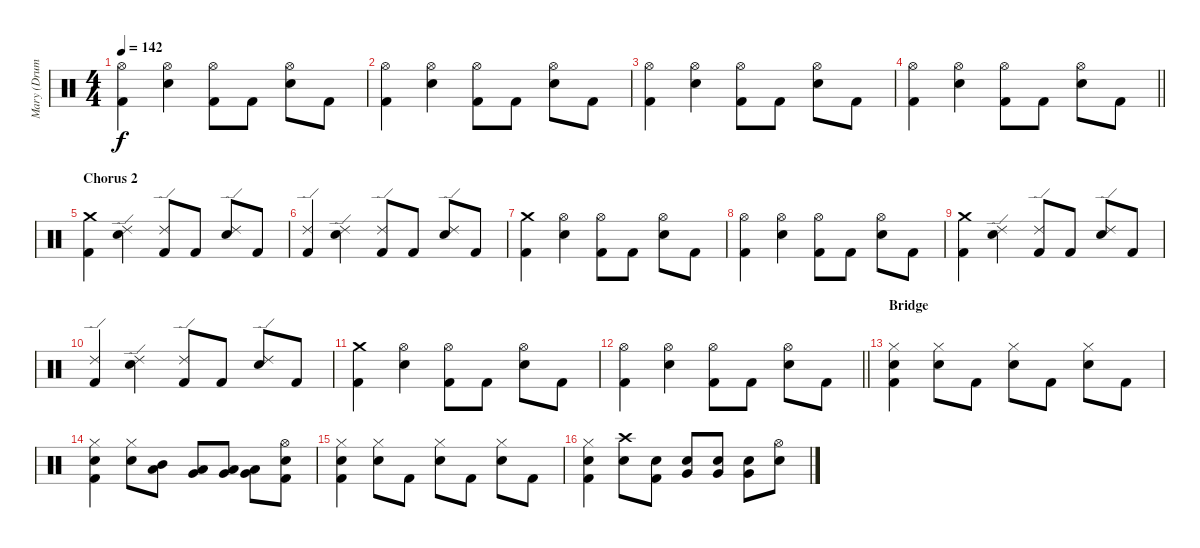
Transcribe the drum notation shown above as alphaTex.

\track ("Mary (Drums)" "Mary (Drum") {instrument percussion}
\staff {score}
\articulation defaults
\ts (4 4)
\tempo 142
\clef neutral
\ks c
("Hi-Hat (open)" "Kick (hit) 2").4{dy f} ("Hi-Hat (open)" "Snare (hit) 2").4 ("Hi-Hat (open)" "Kick (hit) 2").8 "Kick (hit) 2".8 ("Hi-Hat (open)" "Snare (hit) 2").8 "Kick (hit) 2".8 |
("Hi-Hat (open)" "Kick (hit) 2").4 ("Hi-Hat (open)" "Snare (hit) 2").4 ("Hi-Hat (open)" "Kick (hit) 2").8 "Kick (hit) 2".8 ("Hi-Hat (open)" "Snare (hit) 2").8 "Kick (hit) 2".8 |
("Hi-Hat (open)" "Kick (hit) 2").4 ("Hi-Hat (open)" "Snare (hit) 2").4 ("Hi-Hat (open)" "Kick (hit) 2").8 "Kick (hit) 2".8 ("Hi-Hat (open)" "Snare (hit) 2").8 "Kick (hit) 2".8 |
\barLineRight lightlight
("Hi-Hat (open)" "Kick (hit) 2").4 ("Hi-Hat (open)" "Snare (hit) 2").4 ("Hi-Hat (open)" "Kick (hit) 2").8 "Kick (hit) 2".8 ("Hi-Hat (open)" "Snare (hit) 2").8 "Kick (hit) 2".8 |
\section ("" "Chorus 2")
("Crash medium (hit)" "Kick (hit) 2").4 ("Ride (edge) 2" "Snare (hit) 2").4 ("Ride (edge) 2" "Kick (hit) 2").8 "Kick (hit) 2".8 ("Ride (edge) 2" "Snare (hit) 2").8 "Kick (hit) 2".8 |
("Ride (edge) 2" "Kick (hit) 2").4 ("Ride (edge) 2" "Snare (hit) 2").4 ("Ride (edge) 2" "Kick (hit) 2").8 "Kick (hit) 2".8 ("Ride (edge) 2" "Snare (hit) 2").8 "Kick (hit) 2".8 |
("Crash medium (hit)" "Kick (hit) 2").4 ("Hi-Hat (open)" "Snare (hit) 2").4 ("Hi-Hat (open)" "Kick (hit) 2").8 "Kick (hit) 2".8 ("Hi-Hat (open)" "Snare (hit) 2").8 "Kick (hit) 2".8 |
("Hi-Hat (open)" "Kick (hit) 2").4 ("Hi-Hat (open)" "Snare (hit) 2").4 ("Hi-Hat (open)" "Kick (hit) 2").8 "Kick (hit) 2".8 ("Hi-Hat (open)" "Snare (hit) 2").8 "Kick (hit) 2".8 |
("Crash medium (hit)" "Kick (hit) 2").4 ("Ride (edge) 2" "Snare (hit) 2").4 ("Ride (edge) 2" "Kick (hit) 2").8 "Kick (hit) 2".8 ("Ride (edge) 2" "Snare (hit) 2").8 "Kick (hit) 2".8 |
("Ride (edge) 2" "Kick (hit) 2").4 ("Ride (edge) 2" "Snare (hit) 2").4 ("Ride (edge) 2" "Kick (hit) 2").8 "Kick (hit) 2".8 ("Ride (edge) 2" "Snare (hit) 2").8 "Kick (hit) 2".8 |
("Crash medium (hit)" "Kick (hit) 2").4 ("Hi-Hat (open)" "Snare (hit) 2").4 ("Hi-Hat (open)" "Kick (hit) 2").8 "Kick (hit) 2".8 ("Hi-Hat (open)" "Snare (hit) 2").8 "Kick (hit) 2".8 |
\barLineRight lightlight
("Hi-Hat (open)" "Kick (hit) 2").4 ("Hi-Hat (open)" "Snare (hit) 2").4 ("Hi-Hat (open)" "Kick (hit) 2").8 "Kick (hit) 2".8 ("Hi-Hat (open)" "Snare (hit) 2").8 "Kick (hit) 2".8 |
\section ("" "Bridge")
("Hi-Hat (closed)" "Snare (hit) 2" "Kick (hit) 2").4 ("Hi-Hat (closed)" "Snare (hit) 2").8 "Kick (hit) 2".8 ("Hi-Hat (closed)" "Snare (hit) 2").8 "Kick (hit) 2".8 ("Hi-Hat (closed)" "Snare (hit) 2").8 "Kick (hit) 2".8 |
("Hi-Hat (closed)" "Snare (hit) 2" "Kick (hit) 2").4 ("Hi-Hat (closed)" "Snare (hit) 2").8 ("Mid Tom (hit)" "Low Tom (hit)").8 ("Very Low Tom (hit)" "Low Tom (hit)").8 ("Very Low Tom (hit)" "Low Floor Tom (hit)").8 ("Very Low Tom (hit)" "Low Floor Tom (hit)").8 ("Hi-Hat (open)" "Snare (hit) 2" "Kick (hit) 2").8 |
("Hi-Hat (closed)" "Snare (hit) 2" "Kick (hit) 2").4 ("Hi-Hat (closed)" "Snare (hit) 2").8 "Kick (hit) 2".8 ("Hi-Hat (closed)" "Snare (hit) 2").8 "Kick (hit) 2".8 ("Hi-Hat (closed)" "Snare (hit) 2").8 "Kick (hit) 2".8 |
("Hi-Hat (closed)" "Snare (hit) 2" "Kick (hit) 2").4 ("Crash high (hit)" "Snare (hit) 2").8 ("Snare (hit) 2" "Kick (hit) 2").8 ("Very Low Tom (hit)" "Snare (hit) 2").8 ("Very Low Tom (hit)" "Snare (hit) 2").8 ("Very Low Tom (hit)" "Snare (hit) 2").8 ("Hi-Hat (open)" "Snare (hit) 2").8
